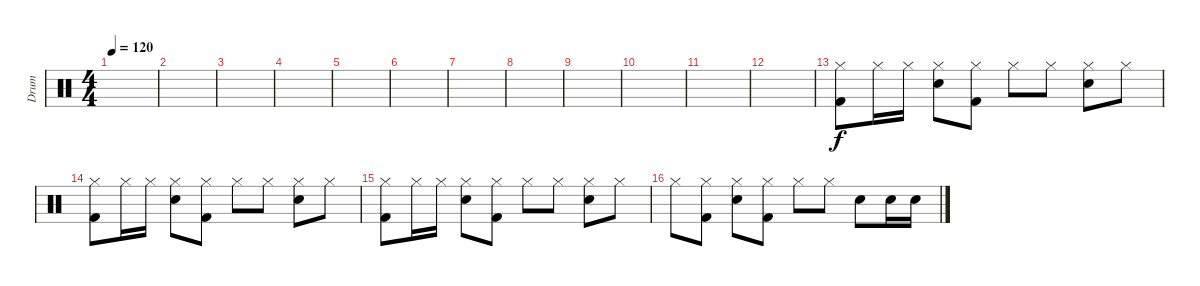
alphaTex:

\track ("Drum" "Drum") {instrument percussion}
\staff {score}
\articulation defaults
\ts (4 4)
\tempo 120
\clef neutral
\ks c
|
|
|
|
|
|
|
|
|
|
|
|
("Kick (hit) 2" "Hi-Hat (closed)").8 "Hi-Hat (closed)".16 "Hi-Hat (closed)".16 ("Snare (hit) 2" "Hi-Hat (closed)").8 ("Kick (hit) 2" "Hi-Hat (closed)").8 "Hi-Hat (closed)".8 "Hi-Hat (closed)".8 ("Snare (hit) 2" "Hi-Hat (closed)").8 "Hi-Hat (closed)".8 |
("Kick (hit) 2" "Hi-Hat (closed)").8 "Hi-Hat (closed)".16 "Hi-Hat (closed)".16 ("Snare (hit) 2" "Hi-Hat (closed)").8 ("Kick (hit) 2" "Hi-Hat (closed)").8 "Hi-Hat (closed)".8 "Hi-Hat (closed)".8 ("Snare (hit) 2" "Hi-Hat (closed)").8 "Hi-Hat (closed)".8 |
("Kick (hit) 2" "Hi-Hat (closed)").8 "Hi-Hat (closed)".16 "Hi-Hat (closed)".16 ("Snare (hit) 2" "Hi-Hat (closed)").8 ("Kick (hit) 2" "Hi-Hat (closed)").8 "Hi-Hat (closed)".8 "Hi-Hat (closed)".8 ("Snare (hit) 2" "Hi-Hat (closed)").8 "Hi-Hat (closed)".8 |
"Hi-Hat (closed)".8 ("Kick (hit) 2" "Hi-Hat (closed)").8 ("Snare (hit) 2" "Hi-Hat (closed)").8 ("Kick (hit) 2" "Hi-Hat (closed)").8 "Hi-Hat (closed)".8 "Hi-Hat (closed)".8 "Snare (hit) 2".8 "Snare (hit) 2".16 "Snare (hit) 2".16
